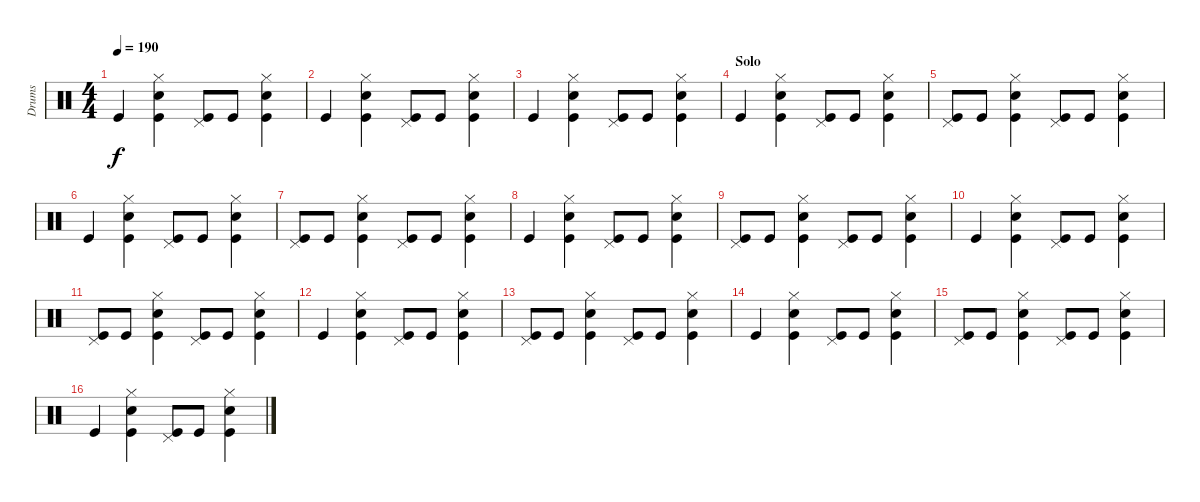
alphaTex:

\track ("Drums" "Drums") {instrument percussion}
\staff {score}
\articulation defaults
\ts (4 4)
\tempo 190
\clef neutral
\ks c "Kick (hit)".4{dy f}
("Snare (hit) 2" "Kick (hit)" "Hi-Hat (closed)").4 ("Kick (hit)" "Pedal Hi-Hat (hit)").8 "Kick (hit)".8 ("Snare (hit) 2" "Kick (hit)" "Hi-Hat (closed)").4 |
"Kick (hit)".4 ("Snare (hit) 2" "Kick (hit)" "Hi-Hat (closed)").4 ("Kick (hit)" "Pedal Hi-Hat (hit)").8 "Kick (hit)".8 ("Snare (hit) 2" "Kick (hit)" "Hi-Hat (closed)").4 |
"Kick (hit)".4 ("Snare (hit) 2" "Kick (hit)" "Hi-Hat (closed)").4 ("Kick (hit)" "Pedal Hi-Hat (hit)").8 "Kick (hit)".8 ("Snare (hit) 2" "Kick (hit)" "Hi-Hat (closed)").4 |
\section ("" "Solo")
"Kick (hit)".4 ("Snare (hit) 2" "Kick (hit)" "Hi-Hat (closed)").4 ("Kick (hit)" "Pedal Hi-Hat (hit)").8 "Kick (hit)".8 ("Snare (hit) 2" "Kick (hit)" "Hi-Hat (closed)").4 |
("Kick (hit)" "Pedal Hi-Hat (hit)").8 "Kick (hit)".8 ("Snare (hit) 2" "Kick (hit)" "Hi-Hat (closed)").4 ("Kick (hit)" "Pedal Hi-Hat (hit)").8 "Kick (hit)".8 ("Snare (hit) 2" "Kick (hit)" "Hi-Hat (closed)").4 |
"Kick (hit)".4 ("Snare (hit) 2" "Kick (hit)" "Hi-Hat (closed)").4 ("Kick (hit)" "Pedal Hi-Hat (hit)").8 "Kick (hit)".8 ("Snare (hit) 2" "Kick (hit)" "Hi-Hat (closed)").4 |
("Kick (hit)" "Pedal Hi-Hat (hit)").8 "Kick (hit)".8 ("Snare (hit) 2" "Kick (hit)" "Hi-Hat (closed)").4 ("Kick (hit)" "Pedal Hi-Hat (hit)").8 "Kick (hit)".8 ("Snare (hit) 2" "Kick (hit)" "Hi-Hat (closed)").4 |
"Kick (hit)".4 ("Snare (hit) 2" "Kick (hit)" "Hi-Hat (closed)").4 ("Kick (hit)" "Pedal Hi-Hat (hit)").8 "Kick (hit)".8 ("Snare (hit) 2" "Kick (hit)" "Hi-Hat (closed)").4 |
("Kick (hit)" "Pedal Hi-Hat (hit)").8 "Kick (hit)".8 ("Snare (hit) 2" "Kick (hit)" "Hi-Hat (closed)").4 ("Kick (hit)" "Pedal Hi-Hat (hit)").8 "Kick (hit)".8 ("Snare (hit) 2" "Kick (hit)" "Hi-Hat (closed)").4 |
"Kick (hit)".4 ("Snare (hit) 2" "Kick (hit)" "Hi-Hat (closed)").4 ("Kick (hit)" "Pedal Hi-Hat (hit)").8 "Kick (hit)".8 ("Snare (hit) 2" "Kick (hit)" "Hi-Hat (closed)").4 |
("Kick (hit)" "Pedal Hi-Hat (hit)").8 "Kick (hit)".8 ("Snare (hit) 2" "Kick (hit)" "Hi-Hat (closed)").4 ("Kick (hit)" "Pedal Hi-Hat (hit)").8 "Kick (hit)".8 ("Snare (hit) 2" "Kick (hit)" "Hi-Hat (closed)").4 |
"Kick (hit)".4 ("Snare (hit) 2" "Kick (hit)" "Hi-Hat (closed)").4 ("Kick (hit)" "Pedal Hi-Hat (hit)").8 "Kick (hit)".8 ("Snare (hit) 2" "Kick (hit)" "Hi-Hat (closed)").4 |
("Kick (hit)" "Pedal Hi-Hat (hit)").8 "Kick (hit)".8 ("Snare (hit) 2" "Kick (hit)" "Hi-Hat (closed)").4 ("Kick (hit)" "Pedal Hi-Hat (hit)").8 "Kick (hit)".8 ("Snare (hit) 2" "Kick (hit)" "Hi-Hat (closed)").4 |
"Kick (hit)".4 ("Snare (hit) 2" "Kick (hit)" "Hi-Hat (closed)").4 ("Kick (hit)" "Pedal Hi-Hat (hit)").8 "Kick (hit)".8 ("Snare (hit) 2" "Kick (hit)" "Hi-Hat (closed)").4 |
("Kick (hit)" "Pedal Hi-Hat (hit)").8 "Kick (hit)".8 ("Snare (hit) 2" "Kick (hit)" "Hi-Hat (closed)").4 ("Kick (hit)" "Pedal Hi-Hat (hit)").8 "Kick (hit)".8 ("Snare (hit) 2" "Kick (hit)" "Hi-Hat (closed)").4 |
"Kick (hit)".4 ("Snare (hit) 2" "Kick (hit)" "Hi-Hat (closed)").4 ("Kick (hit)" "Pedal Hi-Hat (hit)").8 "Kick (hit)".8 ("Snare (hit) 2" "Kick (hit)" "Hi-Hat (closed)").4
